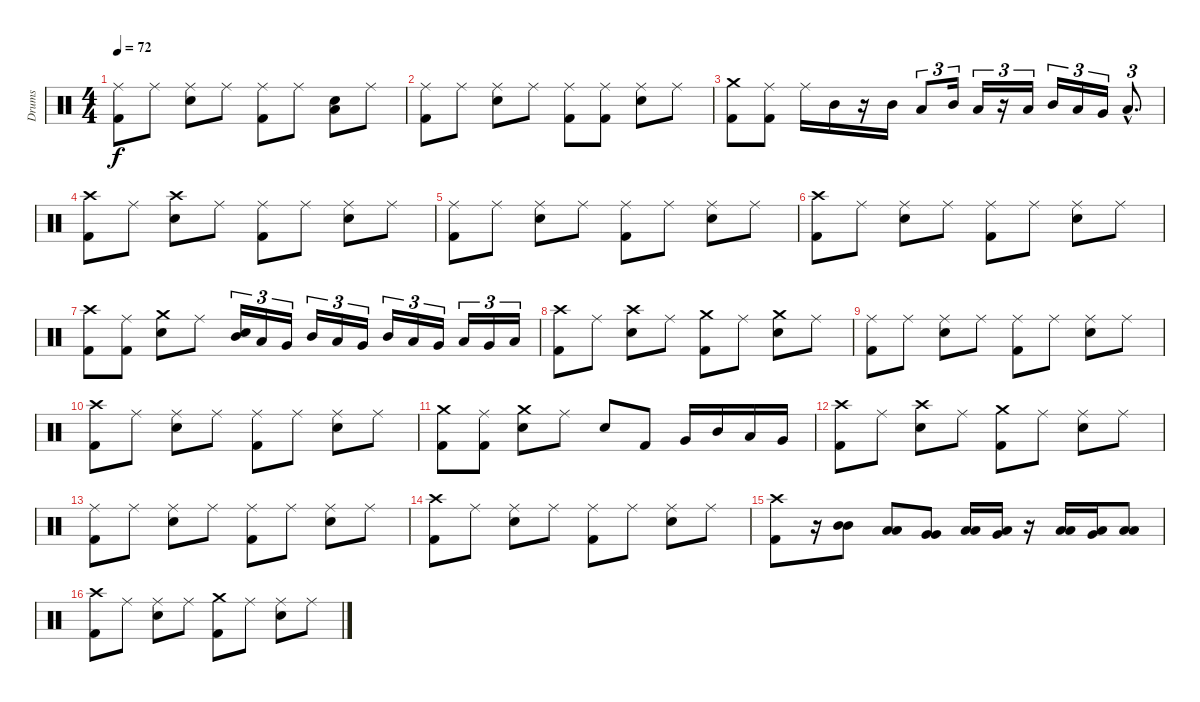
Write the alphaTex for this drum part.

\track ("Drums" "Drums") {instrument percussion}
\staff {score}
\articulation defaults
\ts (4 4)
\tempo 72
\clef neutral
\ks c
("Ride (middle)" "Kick (hit) 2").8{dy f} "Ride (middle)".8 ("Ride (middle)" "Snare (hit) 2").8 "Ride (middle)".8 ("Ride (middle)" "Kick (hit) 2").8 "Ride (middle)".8 ("Low Floor Tom (hit)" "Snare (hit) 2").8 "Ride (middle)".8 |
("Ride (middle)" "Kick (hit) 2").8 "Ride (middle)".8 ("Ride (middle)" "Snare (hit) 2").8 "Ride (middle)".8 ("Ride (middle)" "Kick (hit) 2").8 ("Ride (middle)" "Kick (hit) 2").8 ("Ride (middle)" "Snare (hit) 2").8 "Ride (middle)".8 |
("Crash medium (hit)" "Kick (hit) 2").8 ("Ride (middle)" "Kick (hit) 2").8 "Ride (middle)".16 "Mid Tom (hit)".16 r.16 "Mid Tom (hit)".16 "Low Tom (hit)".8{tu (3 2)} "Mid Tom (hit)".16{tu (3 2)} "Low Tom (hit)".16{tu (3 2)} r.16{tu (3 2)} "Low Tom (hit)".16{tu (3 2)} "Mid Tom (hit)".16{tu (3 2)} "Low Tom (hit)".16{tu (3 2)} "Very Low Tom (hit)".16{tu (3 2)} "Low Floor Tom (hit)"{hac}.8{d tu (3 2)} |
("Crash high (hit)" "Kick (hit) 2").8 "Ride (middle)".8 ("Crash high (hit)" "Snare (hit) 2").8 "Ride (middle)".8 ("Ride (middle)" "Kick (hit) 2").8 "Ride (middle)".8 ("Ride (middle)" "Snare (hit) 2").8 "Ride (middle)".8 |
("Ride (middle)" "Kick (hit) 2").8 "Ride (middle)".8 ("Ride (middle)" "Snare (hit) 2").8 "Ride (middle)".8 ("Ride (middle)" "Kick (hit) 2").8 "Ride (middle)".8 ("Ride (middle)" "Snare (hit) 2").8 "Ride (middle)".8 |
("Crash high (hit)" "Kick (hit) 2").8 "Ride (middle)".8 ("Ride (middle)" "Snare (hit) 2").8 "Ride (middle)".8 ("Ride (middle)" "Kick (hit) 2").8 "Ride (middle)".8 ("Ride (middle)" "Snare (hit) 2").8 "Ride (middle)".8 |
("Crash high (hit)" "Kick (hit) 2").8 ("Ride (middle)" "Kick (hit) 2").8 ("Crash medium (hit)" "Snare (hit) 2").8 "Ride (middle)".8 ("Mid Tom (hit)" "Snare (hit) 2").16{tu (3 2)} "Low Tom (hit)".16{tu (3 2)} "Very Low Tom (hit)".16{tu (3 2)} "Mid Tom (hit)".16{tu (3 2)} "Low Tom (hit)".16{tu (3 2)} "Very Low Tom (hit)".16{tu (3 2)} "Mid Tom (hit)".16{tu (3 2)} "Low Tom (hit)".16{tu (3 2)} "Very Low Tom (hit)".16{tu (3 2)} "Low Tom (hit)".16{tu (3 2)} "Very Low Tom (hit)".16{tu (3 2)} "Low Floor Tom (hit)".16{tu (3 2)} |
("Crash high (hit)" "Kick (hit) 2").8 "Ride (middle)".8 ("Crash high (hit)" "Snare (hit) 2").8 "Ride (middle)".8 ("Crash medium (hit)" "Kick (hit) 2").8 "Ride (middle)".8 ("Crash medium (hit)" "Snare (hit) 2").8 "Ride (middle)".8 |
("Ride (middle)" "Kick (hit) 2").8 "Ride (middle)".8 ("Ride (middle)" "Snare (hit) 2").8 "Ride (middle)".8 ("Ride (middle)" "Kick (hit) 2").8 "Ride (middle)".8 ("Ride (middle)" "Snare (hit) 2").8 "Ride (middle)".8 |
("Crash high (hit)" "Kick (hit) 2").8 "Ride (middle)".8 ("Ride (middle)" "Snare (hit) 2").8 "Ride (middle)".8 ("Ride (middle)" "Kick (hit) 2").8 "Ride (middle)".8 ("Ride (middle)" "Snare (hit) 2").8 "Ride (middle)".8 |
("Crash medium (hit)" "Kick (hit) 2").8 ("Ride (middle)" "Kick (hit) 2").8 ("Crash medium (hit)" "Snare (hit) 2").8 "Ride (middle)".8 "Snare (hit) 2".8 "Kick (hit) 2".8 "Very Low Tom (hit)".16 "Mid Tom (hit)".16 "Low Tom (hit)".16 "Very Low Tom (hit)".16 |
("Crash high (hit)" "Kick (hit) 2").8 "Ride (middle)".8 ("Crash high (hit)" "Snare (hit) 2").8 "Ride (middle)".8 ("Crash medium (hit)" "Kick (hit) 2").8 "Ride (middle)".8 ("Ride (middle)" "Snare (hit) 2").8 "Ride (middle)".8 |
("Ride (middle)" "Kick (hit) 2").8 "Ride (middle)".8 ("Ride (middle)" "Snare (hit) 2").8 "Ride (middle)".8 ("Ride (middle)" "Kick (hit) 2").8 "Ride (middle)".8 ("Ride (middle)" "Snare (hit) 2").8 "Ride (middle)".8 |
("Crash high (hit)" "Kick (hit) 2").8 "Ride (middle)".8 ("Ride (middle)" "Snare (hit) 2").8 "Ride (middle)".8 ("Ride (middle)" "Kick (hit) 2").8 "Ride (middle)".8 ("Ride (middle)" "Snare (hit) 2").8 "Ride (middle)".8 |
("Crash high (hit)" "Kick (hit) 2").8 r.16 ("Mid Tom (hit)" "Mid Tom (hit)").8 ("Low Tom (hit)" "Low Tom (hit)").8 ("Very Low Tom (hit)" "Very Low Tom (hit)").8 ("Low Tom (hit)" "Low Floor Tom (hit)").16 ("Very Low Tom (hit)" "Low Floor Tom (hit)").16 r.16 ("Low Tom (hit)" "Low Floor Tom (hit)").16 ("Very Low Tom (hit)" "Low Tom (hit)").16 ("Low Floor Tom (hit)" "Low Floor Tom (hit)").8 |
("Crash high (hit)" "Kick (hit) 2").8 "Ride (middle)".8 ("Ride (middle)" "Snare (hit) 2").8 "Ride (middle)".8 ("Crash medium (hit)" "Kick (hit) 2").8 "Ride (middle)".8 ("Ride (middle)" "Snare (hit) 2").8 "Ride (middle)".8
